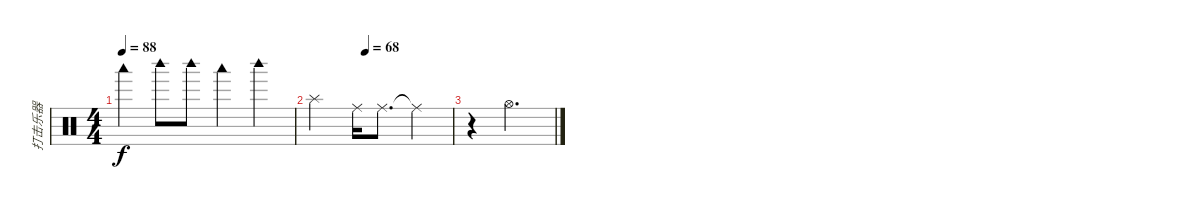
\track ("打击乐器" "打击乐器") {instrument percussion}
\staff {score}
\articulation defaults
\ts (4 4)
\tempo 88
\clef neutral
\ks c "Woodblock low (hit)".4{dy f} "Woodblock high (hit)".8 "Woodblock high (hit)".8 "Woodblock low (hit)".4 "Woodblock high (hit)".4
|
\tempo (68 0.375)
"Splash (hit)".2 "Ride (middle)".16 "Ride (middle)".8{d} "Ride (middle)"{t}.4 |
r.4 "Hi-Hat (open)".2{d}
